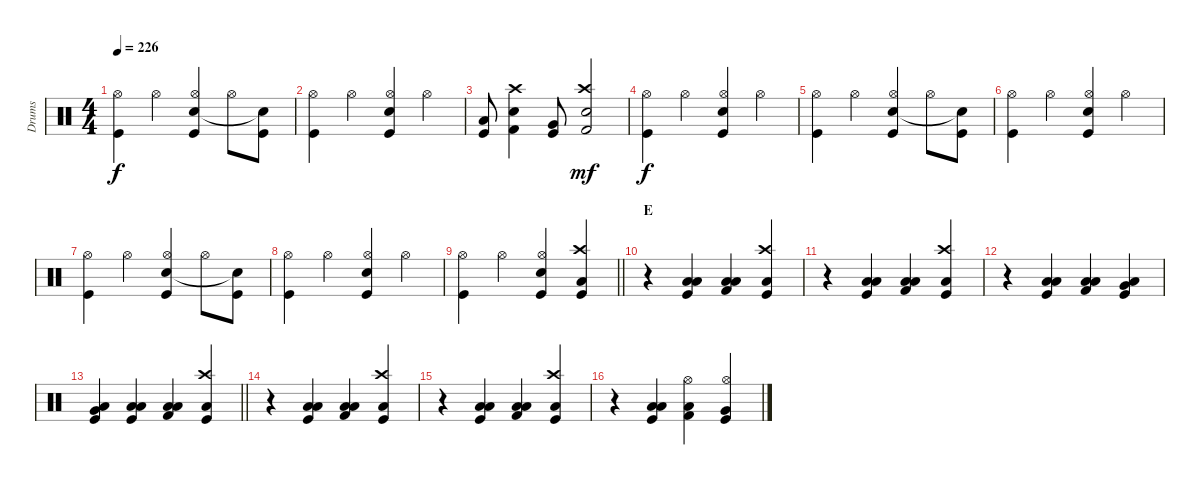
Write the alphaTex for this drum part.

\track ("Drums" "Drums") {instrument percussion}
\staff {score}
\articulation defaults
\ts (4 4)
\tempo 226
\clef neutral
\ks c
("Kick (hit)" "Hi-Hat (open)").4{dy f} "Hi-Hat (open)".4 ("Kick (hit)" "Snare (hit) 2" "Hi-Hat (open)").4 "Hi-Hat (open)".8 ("Kick (hit)" "Snare (hit)"{t}).8 |
("Kick (hit)" "Hi-Hat (open)").4 "Hi-Hat (open)".4 ("Kick (hit)" "Snare (hit) 2" "Hi-Hat (open)").4 "Hi-Hat (open)".4 |
("Kick (hit)" "Low Tom (hit)").8 ("Kick (hit) 2" "Snare (hit) 2" "Crash high (hit)").4 ("Kick (hit)" "Very Low Tom (hit)").8 ("Kick (hit) 2" "Electric Snare (hit)" "Crash high (hit)").2{dy mf} |
("Kick (hit)" "Hi-Hat (open)").4{dy f} "Hi-Hat (open)".4 ("Kick (hit)" "Snare (hit) 2" "Hi-Hat (open)").4 "Hi-Hat (open)".4 |
("Kick (hit)" "Hi-Hat (open)").4 "Hi-Hat (open)".4 ("Kick (hit)" "Snare (hit) 2" "Hi-Hat (open)").4 "Hi-Hat (open)".8 ("Kick (hit)" "Snare (hit)"{t}).8 |
("Kick (hit)" "Hi-Hat (open)").4 "Hi-Hat (open)".4 ("Kick (hit)" "Snare (hit) 2" "Hi-Hat (open)").4 "Hi-Hat (open)".4 |
("Kick (hit)" "Hi-Hat (open)").4 "Hi-Hat (open)".4 ("Kick (hit)" "Snare (hit) 2" "Hi-Hat (open)").4 "Hi-Hat (open)".8 ("Kick (hit)" "Snare (hit)"{t}).8 |
("Kick (hit)" "Hi-Hat (open)").4 "Hi-Hat (open)".4 ("Kick (hit)" "Snare (hit) 2" "Hi-Hat (open)").4 "Hi-Hat (open)".4 |
\barLineRight lightlight
("Kick (hit)" "Hi-Hat (open)").4 "Hi-Hat (open)".4 ("Kick (hit)" "Snare (hit) 2" "Hi-Hat (open)").4 ("Kick (hit)" "Low Floor Tom (hit)" "Crash high (hit)").4 |
\section ("" "E")
r.4 ("Kick (hit)" "Low Floor Tom (hit)" "Low Tom (hit)").4 ("Kick (hit) 2" "Low Floor Tom (hit)" "Low Tom (hit)").4 ("Kick (hit)" "Low Floor Tom (hit)" "Crash high (hit)").4 |
r.4 ("Kick (hit)" "Low Floor Tom (hit)" "Low Tom (hit)").4 ("Kick (hit) 2" "Low Floor Tom (hit)" "Low Tom (hit)").4 ("Kick (hit)" "Low Floor Tom (hit)" "Crash high (hit)").4 |
r.4 ("Kick (hit)" "Low Floor Tom (hit)" "Low Tom (hit)").4 ("Kick (hit) 2" "Low Floor Tom (hit)" "Low Tom (hit)").4 ("Kick (hit)" "Low Floor Tom (hit)" "Very Low Tom (hit)").4 |
\barLineRight lightlight
("Kick (hit)" "Low Floor Tom (hit)" "Very Low Tom (hit)").4 ("Kick (hit)" "Low Floor Tom (hit)" "Low Tom (hit)").4 ("Kick (hit) 2" "Low Floor Tom (hit)" "Low Tom (hit)").4 ("Kick (hit)" "Low Floor Tom (hit)" "Crash high (hit)").4 |
r.4 ("Kick (hit)" "Low Floor Tom (hit)" "Low Tom (hit)").4 ("Kick (hit) 2" "Low Floor Tom (hit)" "Low Tom (hit)").4 ("Kick (hit)" "Low Floor Tom (hit)" "Crash high (hit)").4 |
r.4 ("Kick (hit)" "Low Floor Tom (hit)" "Low Tom (hit)").4 ("Kick (hit) 2" "Low Floor Tom (hit)" "Low Tom (hit)").4 ("Kick (hit)" "Low Floor Tom (hit)" "Crash high (hit)").4 |
r.4 ("Kick (hit)" "Low Floor Tom (hit)" "Low Tom (hit)").4 ("Kick (hit) 2" "Hi-Hat (open)" "Low Tom (hit)").4 ("Kick (hit)" "Hi-Hat (open)" "Very Low Tom (hit)").4
